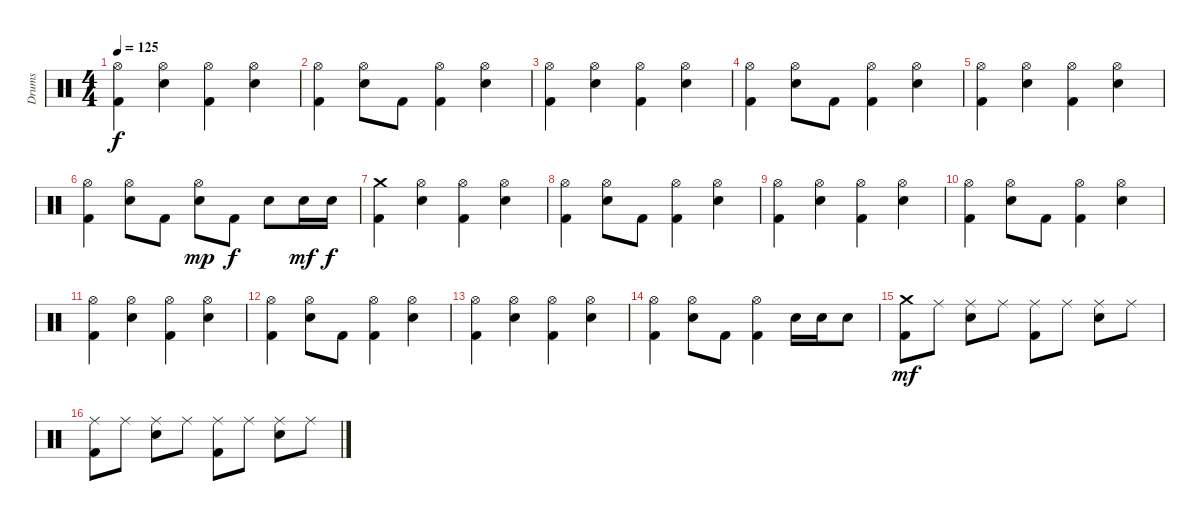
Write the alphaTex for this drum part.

\track ("Drums" "Drums") {instrument percussion}
\staff {score}
\articulation defaults
\ts (4 4)
\tempo 125
\clef neutral
\ks c
("Hi-Hat (open)" "Kick (hit) 2").4{dy f} ("Hi-Hat (open)" "Electric Snare (hit)").4 ("Hi-Hat (open)" "Kick (hit) 2").4 ("Hi-Hat (open)" "Electric Snare (hit)").4 |
("Hi-Hat (open)" "Kick (hit) 2").4 ("Hi-Hat (open)" "Electric Snare (hit)").8 "Kick (hit) 2".8 ("Hi-Hat (open)" "Kick (hit) 2").4 ("Hi-Hat (open)" "Electric Snare (hit)").4 |
("Hi-Hat (open)" "Kick (hit) 2").4 ("Hi-Hat (open)" "Electric Snare (hit)").4 ("Hi-Hat (open)" "Kick (hit) 2").4 ("Hi-Hat (open)" "Electric Snare (hit)").4 |
("Hi-Hat (open)" "Kick (hit) 2").4 ("Hi-Hat (open)" "Electric Snare (hit)").8 "Kick (hit) 2".8 ("Hi-Hat (open)" "Kick (hit) 2").4 ("Hi-Hat (open)" "Electric Snare (hit)").4 |
("Hi-Hat (open)" "Kick (hit) 2").4 ("Hi-Hat (open)" "Electric Snare (hit)").4 ("Hi-Hat (open)" "Kick (hit) 2").4 ("Hi-Hat (open)" "Electric Snare (hit)").4 |
("Hi-Hat (open)" "Kick (hit) 2").4 ("Hi-Hat (open)" "Electric Snare (hit)").8 "Kick (hit) 2".8 ("Hi-Hat (open)" "Electric Snare (hit)").8{dy mp} "Kick (hit) 2".8{dy f} "Electric Snare (hit)".8 "Electric Snare (hit)".16{dy mf} "Electric Snare (hit)".16{dy f} |
("Crash medium (hit)" "Kick (hit) 2").4 ("Hi-Hat (open)" "Electric Snare (hit)").4 ("Hi-Hat (open)" "Kick (hit) 2").4 ("Hi-Hat (open)" "Electric Snare (hit)").4 |
("Hi-Hat (open)" "Kick (hit) 2").4 ("Hi-Hat (open)" "Electric Snare (hit)").8 "Kick (hit) 2".8 ("Hi-Hat (open)" "Kick (hit) 2").4 ("Hi-Hat (open)" "Electric Snare (hit)").4 |
("Hi-Hat (open)" "Kick (hit) 2").4 ("Hi-Hat (open)" "Electric Snare (hit)").4 ("Hi-Hat (open)" "Kick (hit) 2").4 ("Hi-Hat (open)" "Electric Snare (hit)").4 |
("Hi-Hat (open)" "Kick (hit) 2").4 ("Hi-Hat (open)" "Electric Snare (hit)").8 "Kick (hit) 2".8 ("Hi-Hat (open)" "Kick (hit) 2").4 ("Hi-Hat (open)" "Electric Snare (hit)").4 |
("Hi-Hat (open)" "Kick (hit) 2").4 ("Hi-Hat (open)" "Electric Snare (hit)").4 ("Hi-Hat (open)" "Kick (hit) 2").4 ("Hi-Hat (open)" "Electric Snare (hit)").4 |
("Hi-Hat (open)" "Kick (hit) 2").4 ("Hi-Hat (open)" "Electric Snare (hit)").8 "Kick (hit) 2".8 ("Hi-Hat (open)" "Kick (hit) 2").4 ("Hi-Hat (open)" "Electric Snare (hit)").4 |
("Hi-Hat (open)" "Kick (hit) 2").4 ("Hi-Hat (open)" "Electric Snare (hit)").4 ("Hi-Hat (open)" "Kick (hit) 2").4 ("Hi-Hat (open)" "Electric Snare (hit)").4 |
("Hi-Hat (open)" "Kick (hit) 2").4 ("Hi-Hat (open)" "Electric Snare (hit)").8 "Kick (hit) 2".8 ("Hi-Hat (open)" "Kick (hit) 2").4 "Electric Snare (hit)".16 "Electric Snare (hit)".16 "Electric Snare (hit)".8 |
("Crash medium (hit)" "Kick (hit) 2").8{dy mf} "Ride (middle)".8 ("Ride (middle)" "Electric Snare (hit)").8 "Ride (middle)".8 ("Ride (middle)" "Kick (hit) 2").8 "Ride (middle)".8 ("Ride (middle)" "Electric Snare (hit)").8 "Ride (middle)".8 |
("Ride (middle)" "Kick (hit) 2").8 "Ride (middle)".8 ("Ride (middle)" "Electric Snare (hit)").8 "Ride (middle)".8 ("Ride (middle)" "Kick (hit) 2").8 "Ride (middle)".8 ("Ride (middle)" "Electric Snare (hit)").8 "Ride (middle)".8
